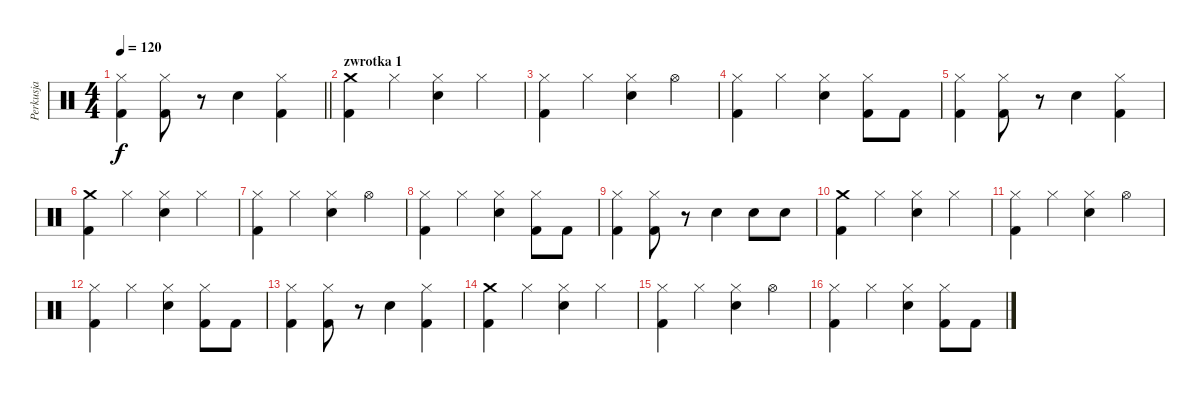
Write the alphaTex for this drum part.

\track ("Perkusja" "Perkusja") {instrument percussion}
\staff {score}
\articulation defaults
\ts (4 4)
\tempo 120
\clef neutral
\barLineRight lightlight
\ks c
("Hi-Hat (closed)" "Kick (hit) 2").4{dy f} ("Hi-Hat (closed)" "Kick (hit) 2").8 r.8 "Snare (hit) 2".4 ("Hi-Hat (closed)" "Kick (hit) 2").4 |
\section ("" "zwrotka 1")
("Crash medium (hit)" "Kick (hit) 2").4 "Hi-Hat (closed)".4 ("Hi-Hat (closed)" "Snare (hit) 2").4 "Hi-Hat (closed)".4 |
("Hi-Hat (closed)" "Kick (hit) 2").4 "Hi-Hat (closed)".4 ("Hi-Hat (closed)" "Snare (hit) 2").4 "Hi-Hat (open)".4 |
("Hi-Hat (closed)" "Kick (hit) 2").4 "Hi-Hat (closed)".4 ("Hi-Hat (closed)" "Snare (hit) 2").4 ("Hi-Hat (closed)" "Kick (hit) 2").8 "Kick (hit) 2".8 |
("Hi-Hat (closed)" "Kick (hit) 2").4 ("Hi-Hat (closed)" "Kick (hit) 2").8 r.8 "Snare (hit) 2".4 ("Hi-Hat (closed)" "Kick (hit) 2").4 |
("Crash medium (hit)" "Kick (hit) 2").4 "Hi-Hat (closed)".4 ("Hi-Hat (closed)" "Snare (hit) 2").4 "Hi-Hat (closed)".4 |
("Hi-Hat (closed)" "Kick (hit) 2").4 "Hi-Hat (closed)".4 ("Hi-Hat (closed)" "Snare (hit) 2").4 "Hi-Hat (open)".4 |
("Hi-Hat (closed)" "Kick (hit) 2").4 "Hi-Hat (closed)".4 ("Hi-Hat (closed)" "Snare (hit) 2").4 ("Hi-Hat (closed)" "Kick (hit) 2").8 "Kick (hit) 2".8 |
("Hi-Hat (closed)" "Kick (hit) 2").4 ("Hi-Hat (closed)" "Kick (hit) 2").8 r.8 "Snare (hit) 2".4 "Snare (hit) 2".8 "Snare (hit) 2".8 |
("Crash medium (hit)" "Kick (hit) 2").4 "Hi-Hat (closed)".4 ("Hi-Hat (closed)" "Snare (hit) 2").4 "Hi-Hat (closed)".4 |
("Hi-Hat (closed)" "Kick (hit) 2").4 "Hi-Hat (closed)".4 ("Hi-Hat (closed)" "Snare (hit) 2").4 "Hi-Hat (open)".4 |
("Hi-Hat (closed)" "Kick (hit) 2").4 "Hi-Hat (closed)".4 ("Hi-Hat (closed)" "Snare (hit) 2").4 ("Hi-Hat (closed)" "Kick (hit) 2").8 "Kick (hit) 2".8 |
("Hi-Hat (closed)" "Kick (hit) 2").4 ("Hi-Hat (closed)" "Kick (hit) 2").8 r.8 "Snare (hit) 2".4 ("Hi-Hat (closed)" "Kick (hit) 2").4 |
("Crash medium (hit)" "Kick (hit) 2").4 "Hi-Hat (closed)".4 ("Hi-Hat (closed)" "Snare (hit) 2").4 "Hi-Hat (closed)".4 |
("Hi-Hat (closed)" "Kick (hit) 2").4 "Hi-Hat (closed)".4 ("Hi-Hat (closed)" "Snare (hit) 2").4 "Hi-Hat (open)".4 |
("Hi-Hat (closed)" "Kick (hit) 2").4 "Hi-Hat (closed)".4 ("Hi-Hat (closed)" "Snare (hit) 2").4 ("Hi-Hat (closed)" "Kick (hit) 2").8 "Kick (hit) 2".8
